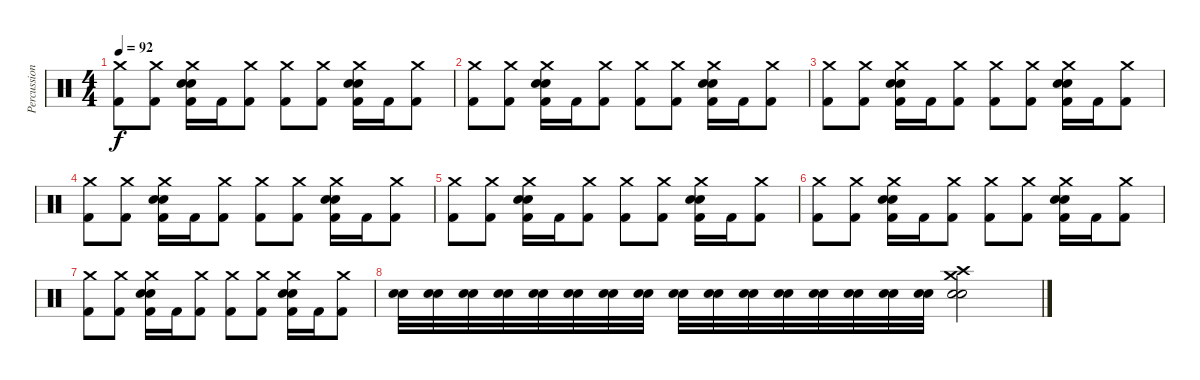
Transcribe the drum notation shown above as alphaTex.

\track ("Percussion" "Percussion") {instrument percussion}
\staff {score}
\articulation defaults
\ts (4 4)
\tempo 92
\clef neutral
\ks c
("Crash medium (hit)" "Kick (hit) 2").8{dy f} ("Crash medium (hit)" "Kick (hit) 2").8 ("Crash medium (hit)" "Electric Snare (hit)" "Electric Snare (hit)" "Kick (hit) 2").16 "Kick (hit) 2".16 ("Crash medium (hit)" "Kick (hit) 2").8 ("Crash medium (hit)" "Kick (hit) 2").8 ("Crash medium (hit)" "Kick (hit) 2").8 ("Crash medium (hit)" "Electric Snare (hit)" "Electric Snare (hit)" "Kick (hit) 2").16 "Kick (hit) 2".16 ("Crash medium (hit)" "Kick (hit) 2").8 |
("Crash medium (hit)" "Kick (hit) 2").8 ("Crash medium (hit)" "Kick (hit) 2").8 ("Crash medium (hit)" "Electric Snare (hit)" "Electric Snare (hit)" "Kick (hit) 2").16 "Kick (hit) 2".16 ("Crash medium (hit)" "Kick (hit) 2").8 ("Crash medium (hit)" "Kick (hit) 2").8 ("Crash medium (hit)" "Kick (hit) 2").8 ("Crash medium (hit)" "Electric Snare (hit)" "Electric Snare (hit)" "Kick (hit) 2").16 "Kick (hit) 2".16 ("Crash medium (hit)" "Kick (hit) 2").8 |
("Crash medium (hit)" "Kick (hit) 2").8 ("Crash medium (hit)" "Kick (hit) 2").8 ("Crash medium (hit)" "Electric Snare (hit)" "Electric Snare (hit)" "Kick (hit) 2").16 "Kick (hit) 2".16 ("Crash medium (hit)" "Kick (hit) 2").8 ("Crash medium (hit)" "Kick (hit) 2").8 ("Crash medium (hit)" "Kick (hit) 2").8 ("Crash medium (hit)" "Electric Snare (hit)" "Electric Snare (hit)" "Kick (hit) 2").16 "Kick (hit) 2".16 ("Crash medium (hit)" "Kick (hit) 2").8 |
("Crash medium (hit)" "Kick (hit) 2").8 ("Crash medium (hit)" "Kick (hit) 2").8 ("Crash medium (hit)" "Electric Snare (hit)" "Electric Snare (hit)" "Kick (hit) 2").16 "Kick (hit) 2".16 ("Crash medium (hit)" "Kick (hit) 2").8 ("Crash medium (hit)" "Kick (hit) 2").8 ("Crash medium (hit)" "Kick (hit) 2").8 ("Crash medium (hit)" "Electric Snare (hit)" "Electric Snare (hit)" "Kick (hit) 2").16 "Kick (hit) 2".16 ("Crash medium (hit)" "Kick (hit) 2").8 |
("Crash medium (hit)" "Kick (hit) 2").8 ("Crash medium (hit)" "Kick (hit) 2").8 ("Crash medium (hit)" "Electric Snare (hit)" "Electric Snare (hit)" "Kick (hit) 2").16 "Kick (hit) 2".16 ("Crash medium (hit)" "Kick (hit) 2").8 ("Crash medium (hit)" "Kick (hit) 2").8 ("Crash medium (hit)" "Kick (hit) 2").8 ("Crash medium (hit)" "Electric Snare (hit)" "Electric Snare (hit)" "Kick (hit) 2").16 "Kick (hit) 2".16 ("Crash medium (hit)" "Kick (hit) 2").8 |
("Crash medium (hit)" "Kick (hit) 2").8 ("Crash medium (hit)" "Kick (hit) 2").8 ("Crash medium (hit)" "Electric Snare (hit)" "Electric Snare (hit)" "Kick (hit) 2").16 "Kick (hit) 2".16 ("Crash medium (hit)" "Kick (hit) 2").8 ("Crash medium (hit)" "Kick (hit) 2").8 ("Crash medium (hit)" "Kick (hit) 2").8 ("Crash medium (hit)" "Electric Snare (hit)" "Electric Snare (hit)" "Kick (hit) 2").16 "Kick (hit) 2".16 ("Crash medium (hit)" "Kick (hit) 2").8 |
("Crash medium (hit)" "Kick (hit) 2").8 ("Crash medium (hit)" "Kick (hit) 2").8 ("Crash medium (hit)" "Electric Snare (hit)" "Electric Snare (hit)" "Kick (hit) 2").16 "Kick (hit) 2".16 ("Crash medium (hit)" "Kick (hit) 2").8 ("Crash medium (hit)" "Kick (hit) 2").8 ("Crash medium (hit)" "Kick (hit) 2").8 ("Crash medium (hit)" "Electric Snare (hit)" "Electric Snare (hit)" "Kick (hit) 2").16 "Kick (hit) 2".16 ("Crash medium (hit)" "Kick (hit) 2").8 |
("Electric Snare (hit)" "Electric Snare (hit)").32 ("Electric Snare (hit)" "Electric Snare (hit)").32 ("Electric Snare (hit)" "Electric Snare (hit)").32 ("Electric Snare (hit)" "Electric Snare (hit)").32 ("Electric Snare (hit)" "Electric Snare (hit)").32 ("Electric Snare (hit)" "Electric Snare (hit)").32 ("Electric Snare (hit)" "Electric Snare (hit)").32 ("Electric Snare (hit)" "Electric Snare (hit)").32 ("Electric Snare (hit)" "Electric Snare (hit)").32 ("Electric Snare (hit)" "Electric Snare (hit)").32 ("Electric Snare (hit)" "Electric Snare (hit)").32 ("Electric Snare (hit)" "Electric Snare (hit)").32 ("Electric Snare (hit)" "Electric Snare (hit)").32 ("Electric Snare (hit)" "Electric Snare (hit)").32 ("Electric Snare (hit)" "Electric Snare (hit)").32 ("Electric Snare (hit)" "Electric Snare (hit)").32 ("Crash medium (hit)" "Crash high (hit)" "Electric Snare (hit)" "Electric Snare (hit)").2
